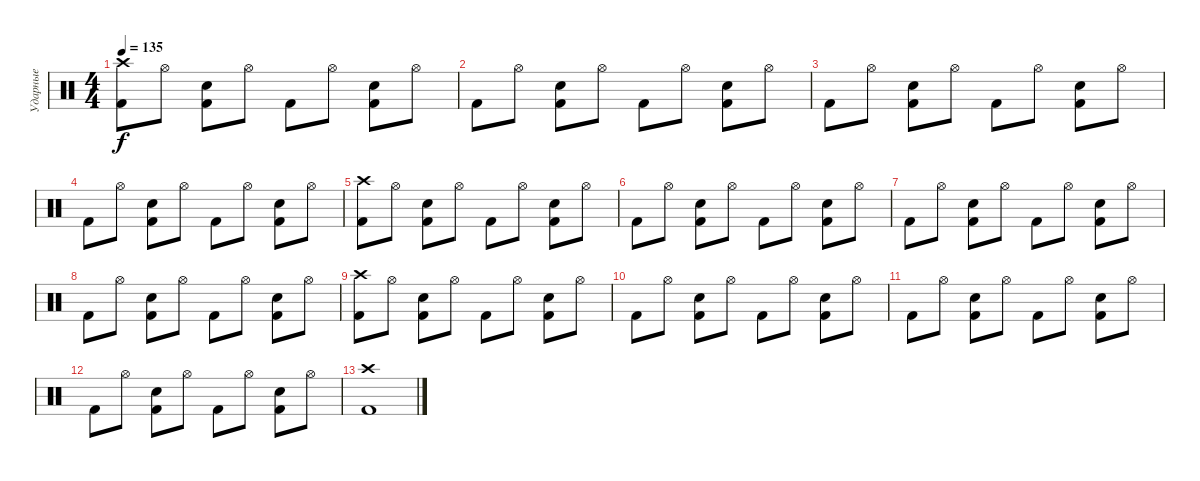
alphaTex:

\track ("Ударные" "Ударные") {instrument percussion}
\staff {score}
\articulation defaults
\ts (4 4)
\tempo 135
\clef neutral
\ks c
("Kick (hit) 2" "Crash high (hit)").8{dy f} "Hi-Hat (open)".8 ("Kick (hit) 2" "Snare (hit) 2").8 "Hi-Hat (open)".8 "Kick (hit) 2".8 "Hi-Hat (open)".8 ("Kick (hit) 2" "Snare (hit) 2").8 "Hi-Hat (open)".8 |
"Kick (hit) 2".8 "Hi-Hat (open)".8 ("Kick (hit) 2" "Snare (hit) 2").8 "Hi-Hat (open)".8 "Kick (hit) 2".8 "Hi-Hat (open)".8 ("Kick (hit) 2" "Snare (hit) 2").8 "Hi-Hat (open)".8 |
"Kick (hit) 2".8 "Hi-Hat (open)".8 ("Kick (hit) 2" "Snare (hit) 2").8 "Hi-Hat (open)".8 "Kick (hit) 2".8 "Hi-Hat (open)".8 ("Kick (hit) 2" "Snare (hit) 2").8 "Hi-Hat (open)".8 |
"Kick (hit) 2".8 "Hi-Hat (open)".8 ("Kick (hit) 2" "Snare (hit) 2").8 "Hi-Hat (open)".8 "Kick (hit) 2".8 "Hi-Hat (open)".8 ("Kick (hit) 2" "Snare (hit) 2").8 "Hi-Hat (open)".8 |
("Kick (hit) 2" "Crash high (hit)").8 "Hi-Hat (open)".8 ("Kick (hit) 2" "Snare (hit) 2").8 "Hi-Hat (open)".8 "Kick (hit) 2".8 "Hi-Hat (open)".8 ("Kick (hit) 2" "Snare (hit) 2").8 "Hi-Hat (open)".8 |
"Kick (hit) 2".8 "Hi-Hat (open)".8 ("Kick (hit) 2" "Snare (hit) 2").8 "Hi-Hat (open)".8 "Kick (hit) 2".8 "Hi-Hat (open)".8 ("Kick (hit) 2" "Snare (hit) 2").8 "Hi-Hat (open)".8 |
"Kick (hit) 2".8 "Hi-Hat (open)".8 ("Kick (hit) 2" "Snare (hit) 2").8 "Hi-Hat (open)".8 "Kick (hit) 2".8 "Hi-Hat (open)".8 ("Kick (hit) 2" "Snare (hit) 2").8 "Hi-Hat (open)".8 |
"Kick (hit) 2".8 "Hi-Hat (open)".8 ("Kick (hit) 2" "Snare (hit) 2").8 "Hi-Hat (open)".8 "Kick (hit) 2".8 "Hi-Hat (open)".8 ("Kick (hit) 2" "Snare (hit) 2").8 "Hi-Hat (open)".8 |
("Kick (hit) 2" "Crash high (hit)").8 "Hi-Hat (open)".8 ("Kick (hit) 2" "Snare (hit) 2").8 "Hi-Hat (open)".8 "Kick (hit) 2".8 "Hi-Hat (open)".8 ("Kick (hit) 2" "Snare (hit) 2").8 "Hi-Hat (open)".8 |
"Kick (hit) 2".8 "Hi-Hat (open)".8 ("Kick (hit) 2" "Snare (hit) 2").8 "Hi-Hat (open)".8 "Kick (hit) 2".8 "Hi-Hat (open)".8 ("Kick (hit) 2" "Snare (hit) 2").8 "Hi-Hat (open)".8 |
"Kick (hit) 2".8 "Hi-Hat (open)".8 ("Kick (hit) 2" "Snare (hit) 2").8 "Hi-Hat (open)".8 "Kick (hit) 2".8 "Hi-Hat (open)".8 ("Kick (hit) 2" "Snare (hit) 2").8 "Hi-Hat (open)".8 |
"Kick (hit) 2".8 "Hi-Hat (open)".8 ("Kick (hit) 2" "Snare (hit) 2").8 "Hi-Hat (open)".8 "Kick (hit) 2".8 "Hi-Hat (open)".8 ("Kick (hit) 2" "Snare (hit) 2").8 "Hi-Hat (open)".8 |
("Kick (hit) 2" "Crash high (hit)").1
